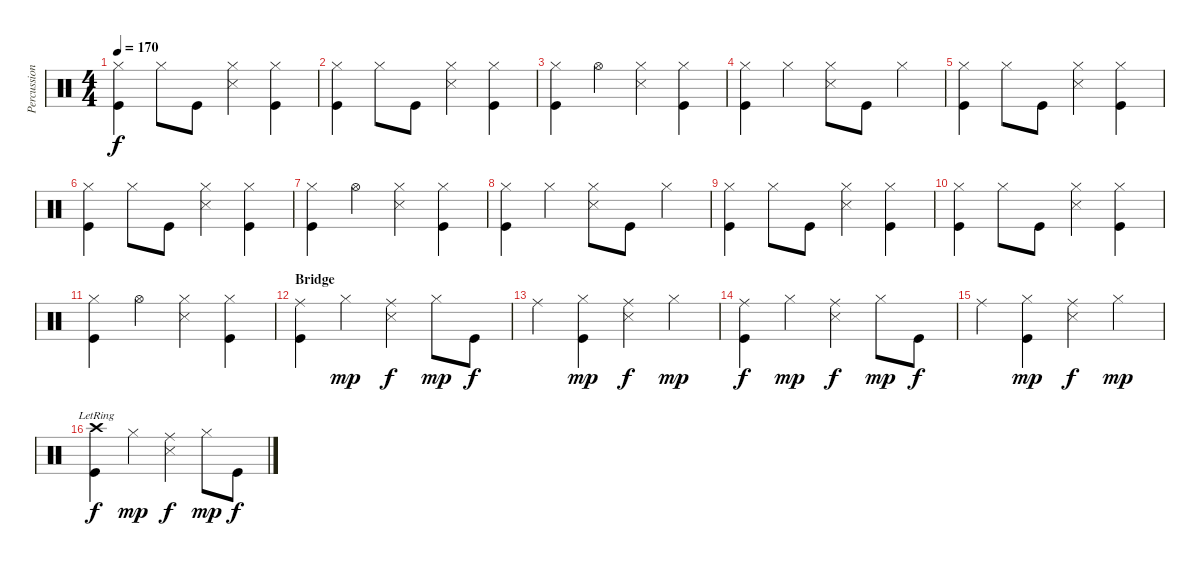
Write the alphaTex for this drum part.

\track ("Percussion" "Percussion") {instrument percussion}
\staff {score}
\articulation defaults
\ts (4 4)
\tempo 170
\clef neutral
\ks c
("Hi-Hat (closed)" "Kick (hit)").4{dy f} "Hi-Hat (closed)".8 "Kick (hit)".8 ("Hi-Hat (closed)" "Snare (side stick) 3").4 ("Hi-Hat (closed)" "Kick (hit)").4 |
("Hi-Hat (closed)" "Kick (hit)").4 "Hi-Hat (closed)".8 "Kick (hit)".8 ("Hi-Hat (closed)" "Snare (side stick) 3").4 ("Hi-Hat (closed)" "Kick (hit)").4 |
("Hi-Hat (closed)" "Kick (hit)").4 "Hi-Hat (open)".4 ("Hi-Hat (closed)" "Snare (side stick) 3").4 ("Hi-Hat (closed)" "Kick (hit)").4 |
("Hi-Hat (closed)" "Kick (hit)").4 "Hi-Hat (closed)".4 ("Hi-Hat (closed)" "Snare (side stick) 3").8 "Kick (hit)".8 "Hi-Hat (closed)".4 |
("Hi-Hat (closed)" "Kick (hit)").4 "Hi-Hat (closed)".8 "Kick (hit)".8 ("Hi-Hat (closed)" "Snare (side stick) 3").4 ("Hi-Hat (closed)" "Kick (hit)").4 |
("Hi-Hat (closed)" "Kick (hit)").4 "Hi-Hat (closed)".8 "Kick (hit)".8 ("Hi-Hat (closed)" "Snare (side stick) 3").4 ("Hi-Hat (closed)" "Kick (hit)").4 |
("Hi-Hat (closed)" "Kick (hit)").4 "Hi-Hat (open)".4 ("Hi-Hat (closed)" "Snare (side stick) 3").4 ("Hi-Hat (closed)" "Kick (hit)").4 |
("Hi-Hat (closed)" "Kick (hit)").4 "Hi-Hat (closed)".4 ("Hi-Hat (closed)" "Snare (side stick) 3").8 "Kick (hit)".8 "Hi-Hat (closed)".4 |
("Hi-Hat (closed)" "Kick (hit)").4 "Hi-Hat (closed)".8 "Kick (hit)".8 ("Hi-Hat (closed)" "Snare (side stick) 3").4 ("Hi-Hat (closed)" "Kick (hit)").4 |
("Hi-Hat (closed)" "Kick (hit)").4 "Hi-Hat (closed)".8 "Kick (hit)".8 ("Hi-Hat (closed)" "Snare (side stick) 3").4 ("Hi-Hat (closed)" "Kick (hit)").4 |
("Hi-Hat (closed)" "Kick (hit)").4 "Hi-Hat (open)".4 ("Hi-Hat (closed)" "Snare (side stick) 3").4 ("Hi-Hat (closed)" "Kick (hit)").4 |
\section ("" "Bridge")
("Ride (middle)" "Kick (hit)").4 "Hi-Hat (closed)".4{dy mp} ("Ride (middle)" "Snare (side stick) 3").4{dy f} "Hi-Hat (closed)".8{dy mp} "Kick (hit)".8{dy f} |
"Ride (middle)".4 ("Hi-Hat (closed)" "Kick (hit)").4{dy mp} ("Ride (middle)" "Snare (side stick) 3").4{dy f} "Hi-Hat (closed)".4{dy mp} |
("Ride (middle)" "Kick (hit)").4{dy f} "Hi-Hat (closed)".4{dy mp} ("Ride (middle)" "Snare (side stick) 3").4{dy f} "Hi-Hat (closed)".8{dy mp} "Kick (hit)".8{dy f} |
"Ride (middle)".4 ("Hi-Hat (closed)" "Kick (hit)").4{dy mp} ("Ride (middle)" "Snare (side stick) 3").4{dy f} "Hi-Hat (closed)".4{dy mp} |
("Crash high (hit)"{lr} "Kick (hit)").4{dy f} "Hi-Hat (closed)".4{dy mp} ("Ride (middle)" "Snare (side stick) 3").4{dy f} "Hi-Hat (closed)".8{dy mp} "Kick (hit)".8{dy f}
